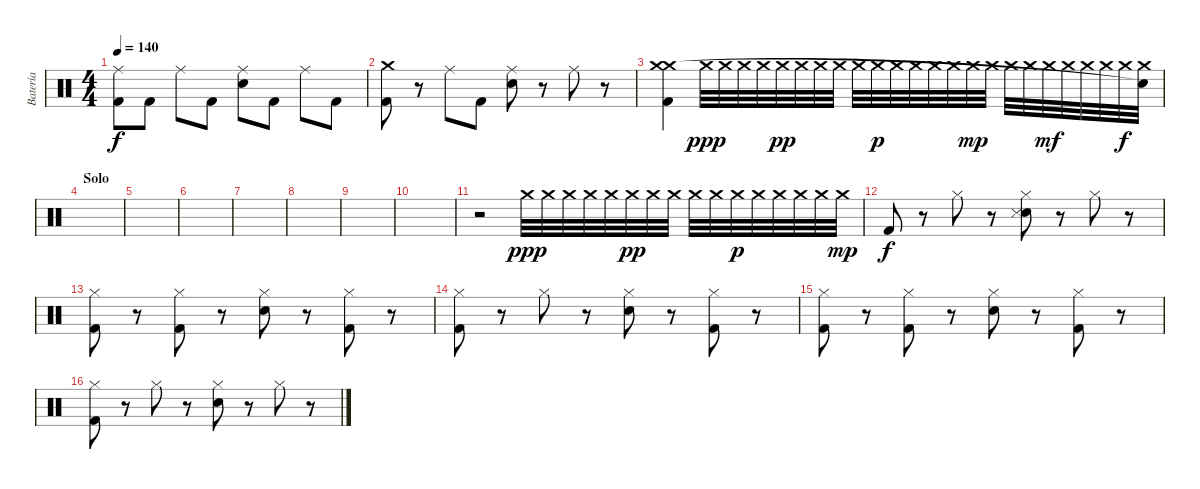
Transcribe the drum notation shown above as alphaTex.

\track ("Batería" "Batería") {instrument percussion}
\staff {score}
\articulation defaults
\ts (4 4)
\tempo 140
\clef neutral
\ks c
("Ride (middle)" "Kick (hit) 2").8{dy f} "Kick (hit) 2".8 "Ride (middle)".8 "Kick (hit) 2".8 ("Ride (middle)" "Snare (hit) 2").8 "Kick (hit) 2".8 "Ride (middle)".8 "Kick (hit) 2".8 |
("Crash medium (hit)" "Kick (hit) 2").8 r.8 "Ride (middle)".8 "Kick (hit) 2".8 ("Ride (middle)" "Snare (hit) 2").8 r.8 "Ride (middle)".8 r.8 |
("Crash medium (hit)" "Crash medium (hit)" "Kick (hit) 2").4 "Crash medium (hit)".32{dy ppp} "Crash medium (hit)".32 "Crash medium (hit)".32 "Crash medium (hit)".32 "Crash medium (hit)".32{dy pp} "Crash medium (hit)".32 "Crash medium (hit)".32 "Crash medium (hit)".32 "Crash medium (hit)".32 "Crash medium (hit)".32{dy p} "Crash medium (hit)".32 "Crash medium (hit)".32 "Crash medium (hit)".32 "Crash medium (hit)".32 "Crash medium (hit)".32{dy mp} "Crash medium (hit)".32 "Crash medium (hit)".32 "Crash medium (hit)".32 "Crash medium (hit)".32{dy mf} "Crash medium (hit)".32 "Crash medium (hit)".32 "Crash medium (hit)".32 "Crash medium (hit)".32{dy f} ("Crash medium (hit)" "Snare (hit)"{t}).32 |
\section ("" "Solo")
|
|
|
|
|
|
|
r.2 "Crash medium (hit)".32{dy ppp} "Crash medium (hit)".32 "Crash medium (hit)".32 "Crash medium (hit)".32 "Crash medium (hit)".32 "Crash medium (hit)".32{dy pp} "Crash medium (hit)".32 "Crash medium (hit)".32 "Crash medium (hit)".32 "Crash medium (hit)".32 "Crash medium (hit)".32{dy p} "Crash medium (hit)".32 "Crash medium (hit)".32 "Crash medium (hit)".32 "Crash medium (hit)".32 "Crash medium (hit)".32{dy mp} |
"Kick (hit) 2".8{dy f} r.8 "Hi-Hat (closed)".8 r.8 ("Hi-Hat (closed)" "Snare (hit) 2" "Snare (side stick) 3").8 r.8 "Hi-Hat (closed)".8 r.8 |
("Hi-Hat (closed)" "Kick (hit) 2").8 r.8 ("Hi-Hat (closed)" "Kick (hit) 2").8 r.8 ("Hi-Hat (closed)" "Snare (hit) 2").8 r.8 ("Hi-Hat (closed)" "Kick (hit) 2").8 r.8 |
("Hi-Hat (closed)" "Kick (hit) 2").8 r.8 "Hi-Hat (closed)".8 r.8 ("Hi-Hat (closed)" "Snare (hit) 2").8 r.8 ("Hi-Hat (closed)" "Kick (hit) 2").8 r.8 |
("Hi-Hat (closed)" "Kick (hit) 2").8 r.8 ("Hi-Hat (closed)" "Kick (hit) 2").8 r.8 ("Hi-Hat (closed)" "Snare (hit) 2").8 r.8 ("Hi-Hat (closed)" "Kick (hit) 2").8 r.8 |
("Hi-Hat (closed)" "Kick (hit) 2").8 r.8 "Hi-Hat (closed)".8 r.8 ("Hi-Hat (closed)" "Snare (hit) 2").8 r.8 "Hi-Hat (closed)".8 r.8
